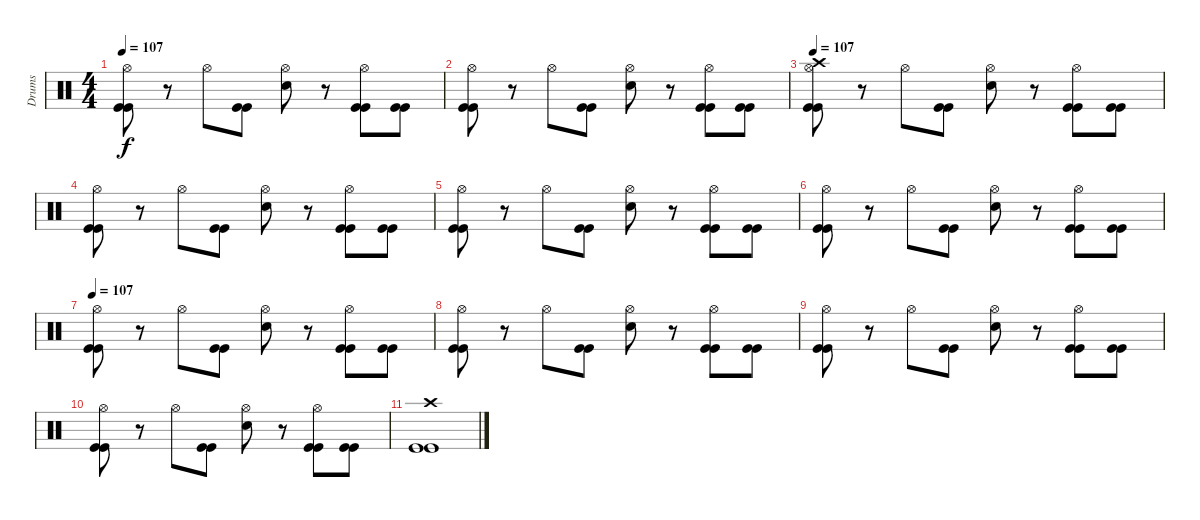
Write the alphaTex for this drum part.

\track ("Drums" "Drums") {instrument percussion}
\staff {score}
\articulation defaults
\ts (4 4)
\tempo 107
\clef neutral
\ks c
("Hi-Hat (open)" "Kick (hit)" "Kick (hit)").8{dy f} r.8 "Hi-Hat (open)".8 ("Kick (hit)" "Kick (hit)").8 ("Snare (hit) 2" "Hi-Hat (open)").8 r.8 ("Hi-Hat (open)" "Kick (hit)" "Kick (hit)").8 ("Kick (hit)" "Kick (hit)").8 |
("Hi-Hat (open)" "Kick (hit)" "Kick (hit)").8 r.8 "Hi-Hat (open)".8 ("Kick (hit)" "Kick (hit)").8 ("Snare (hit) 2" "Hi-Hat (open)").8 r.8 ("Hi-Hat (open)" "Kick (hit)" "Kick (hit)").8 ("Kick (hit)" "Kick (hit)").8 |
\tempo 107
("Crash high (hit)" "Hi-Hat (open)" "Kick (hit)" "Kick (hit)").8 r.8 "Hi-Hat (open)".8 ("Kick (hit)" "Kick (hit)").8 ("Snare (hit) 2" "Hi-Hat (open)").8 r.8 ("Hi-Hat (open)" "Kick (hit)" "Kick (hit)").8 ("Kick (hit)" "Kick (hit)").8 |
("Hi-Hat (open)" "Kick (hit)" "Kick (hit)").8 r.8 "Hi-Hat (open)".8 ("Kick (hit)" "Kick (hit)").8 ("Snare (hit) 2" "Hi-Hat (open)").8 r.8 ("Hi-Hat (open)" "Kick (hit)" "Kick (hit)").8 ("Kick (hit)" "Kick (hit)").8 |
("Hi-Hat (open)" "Kick (hit)" "Kick (hit)").8 r.8 "Hi-Hat (open)".8 ("Kick (hit)" "Kick (hit)").8 ("Snare (hit) 2" "Hi-Hat (open)").8 r.8 ("Hi-Hat (open)" "Kick (hit)" "Kick (hit)").8 ("Kick (hit)" "Kick (hit)").8 |
("Hi-Hat (open)" "Kick (hit)" "Kick (hit)").8 r.8 "Hi-Hat (open)".8 ("Kick (hit)" "Kick (hit)").8 ("Snare (hit) 2" "Hi-Hat (open)").8 r.8 ("Hi-Hat (open)" "Kick (hit)" "Kick (hit)").8 ("Kick (hit)" "Kick (hit)").8 |
\tempo 107
("Hi-Hat (open)" "Kick (hit)" "Kick (hit)").8 r.8 "Hi-Hat (open)".8 ("Kick (hit)" "Kick (hit)").8 ("Snare (hit) 2" "Hi-Hat (open)").8 r.8 ("Hi-Hat (open)" "Kick (hit)" "Kick (hit)").8 ("Kick (hit)" "Kick (hit)").8 |
("Hi-Hat (open)" "Kick (hit)" "Kick (hit)").8 r.8 "Hi-Hat (open)".8 ("Kick (hit)" "Kick (hit)").8 ("Snare (hit) 2" "Hi-Hat (open)").8 r.8 ("Hi-Hat (open)" "Kick (hit)" "Kick (hit)").8 ("Kick (hit)" "Kick (hit)").8 |
("Hi-Hat (open)" "Kick (hit)" "Kick (hit)").8 r.8 "Hi-Hat (open)".8 ("Kick (hit)" "Kick (hit)").8 ("Snare (hit) 2" "Hi-Hat (open)").8 r.8 ("Hi-Hat (open)" "Kick (hit)" "Kick (hit)").8 ("Kick (hit)" "Kick (hit)").8 |
("Hi-Hat (open)" "Kick (hit)" "Kick (hit)").8 r.8 "Hi-Hat (open)".8 ("Kick (hit)" "Kick (hit)").8 ("Snare (hit) 2" "Hi-Hat (open)").8 r.8 ("Hi-Hat (open)" "Kick (hit)" "Kick (hit)").8 ("Kick (hit)" "Kick (hit)").8 |
("Crash high (hit)" "Kick (hit)" "Kick (hit)").1
